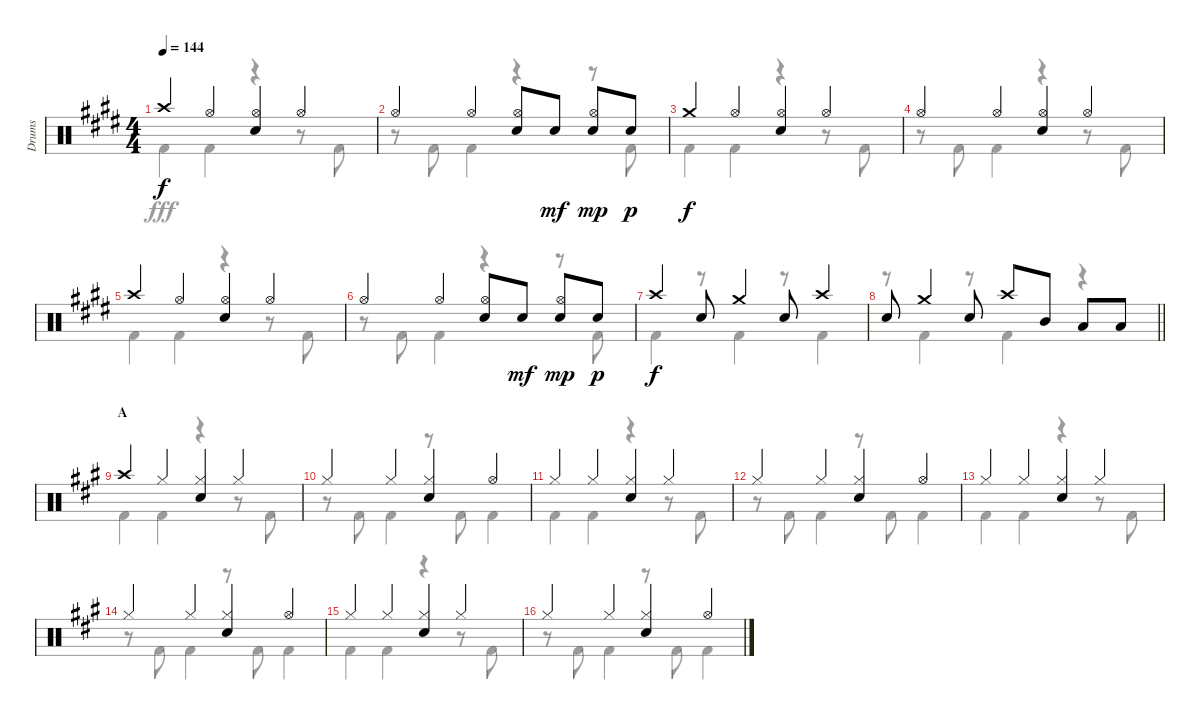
\track ("Drums" "Drums") {instrument percussion}
\staff {score}
\articulation defaults
\voice
\ts (4 4)
\tempo 144
\clef neutral
\ks e "Crash high (hit)".4{dy f} "Hi-Hat (open)".4
("Hi-Hat (open)" "Snare (hit) 2").4 "Hi-Hat (open)".4 |
"Hi-Hat (open)".4 "Hi-Hat (open)".4 ("Hi-Hat (open)" "Snare (hit) 2").8 "Snare (hit) 2".8{dy mf} ("Hi-Hat (open)" "Snare (hit) 2").8{dy mp} "Snare (hit) 2".8{dy p} |
"Crash medium (hit)".4{dy f} "Hi-Hat (open)".4 ("Hi-Hat (open)" "Snare (hit) 2").4 "Hi-Hat (open)".4 |
"Hi-Hat (open)".4 "Hi-Hat (open)".4 ("Hi-Hat (open)" "Snare (hit) 2").4 "Hi-Hat (open)".4 |
"Crash high (hit)".4 "Hi-Hat (open)".4 ("Hi-Hat (open)" "Snare (hit) 2").4 "Hi-Hat (open)".4 |
"Hi-Hat (open)".4 "Hi-Hat (open)".4 ("Hi-Hat (open)" "Snare (hit) 2").8 "Snare (hit) 2".8{dy mf} ("Hi-Hat (open)" "Snare (hit) 2").8{dy mp} "Snare (hit) 2".8{dy p} |
"Crash high (hit)".4{dy f} "Snare (hit) 2".8 "Crash medium (hit)".4 "Snare (hit) 2".8 "Crash high (hit)".4 |
\barLineRight lightlight "Snare (hit) 2".8 "Crash medium (hit)".4 "Snare (hit) 2".8 "Crash high (hit)".8 "Mid Tom (hit)".8 "Low Tom (hit)".8 "Low Tom (hit)".8
|
\section ("" "A")
\ks a "Crash high (hit)".4 "Hi-Hat (closed)".4
("Hi-Hat (closed)" "Snare (hit) 2").4 "Hi-Hat (closed)".4 |
"Hi-Hat (closed)".4 "Hi-Hat (closed)".4 ("Hi-Hat (closed)" "Snare (hit) 2").4 "Hi-Hat (open)".4 |
"Hi-Hat (closed)".4 "Hi-Hat (closed)".4 ("Hi-Hat (closed)" "Snare (hit) 2").4 "Hi-Hat (closed)".4 |
"Hi-Hat (closed)".4 "Hi-Hat (closed)".4 ("Hi-Hat (closed)" "Snare (hit) 2").4 "Hi-Hat (open)".4 |
"Hi-Hat (closed)".4 "Hi-Hat (closed)".4 ("Hi-Hat (closed)" "Snare (hit) 2").4 "Hi-Hat (closed)".4 |
"Hi-Hat (closed)".4 "Hi-Hat (closed)".4 ("Hi-Hat (closed)" "Snare (hit) 2").4 "Hi-Hat (open)".4 |
"Hi-Hat (closed)".4 "Hi-Hat (closed)".4 ("Hi-Hat (closed)" "Snare (hit) 2").4 "Hi-Hat (closed)".4 |
"Hi-Hat (closed)".4 "Hi-Hat (closed)".4 ("Hi-Hat (closed)" "Snare (hit) 2").4 "Hi-Hat (open)".4
\voice
\clef neutral
\ottava regular
\simile none
\ks e "Kick (hit) 2".4{dy fff} "Kick (hit) 2".4
r.4 r.8 "Kick (hit) 2".8 |
r.8 "Kick (hit) 2".8 "Kick (hit) 2".4 r.4 r.8 "Kick (hit) 2".8 |
"Kick (hit) 2".4 "Kick (hit) 2".4 r.4 r.8 "Kick (hit) 2".8 |
r.8 "Kick (hit) 2".8 "Kick (hit) 2".4 r.4 r.8 "Kick (hit) 2".8 |
"Kick (hit) 2".4 "Kick (hit) 2".4 r.4 r.8 "Kick (hit) 2".8 |
r.8 "Kick (hit) 2".8 "Kick (hit) 2".4 r.4 r.8 "Kick (hit) 2".8 |
"Kick (hit) 2".4 r.8 "Kick (hit) 2".4 r.8 "Kick (hit) 2".4 |
\barLineRight lightlight
r.8 "Kick (hit) 2".4 r.8 "Kick (hit) 2".4 r.4 |
\ks a "Kick (hit) 2".4 "Kick (hit) 2".4
r.4 r.8 "Kick (hit) 2".8 |
r.8 "Kick (hit) 2".8 "Kick (hit) 2".4 r.8 "Kick (hit) 2".8 "Kick (hit) 2".4 |
"Kick (hit) 2".4 "Kick (hit) 2".4 r.4 r.8 "Kick (hit) 2".8 |
r.8 "Kick (hit) 2".8 "Kick (hit) 2".4 r.8 "Kick (hit) 2".8 "Kick (hit) 2".4 |
"Kick (hit) 2".4 "Kick (hit) 2".4 r.4 r.8 "Kick (hit) 2".8 |
r.8 "Kick (hit) 2".8 "Kick (hit) 2".4 r.8 "Kick (hit) 2".8 "Kick (hit) 2".4 |
"Kick (hit) 2".4 "Kick (hit) 2".4 r.4 r.8 "Kick (hit) 2".8 |
r.8 "Kick (hit) 2".8 "Kick (hit) 2".4 r.8 "Kick (hit) 2".8 "Kick (hit) 2".4
